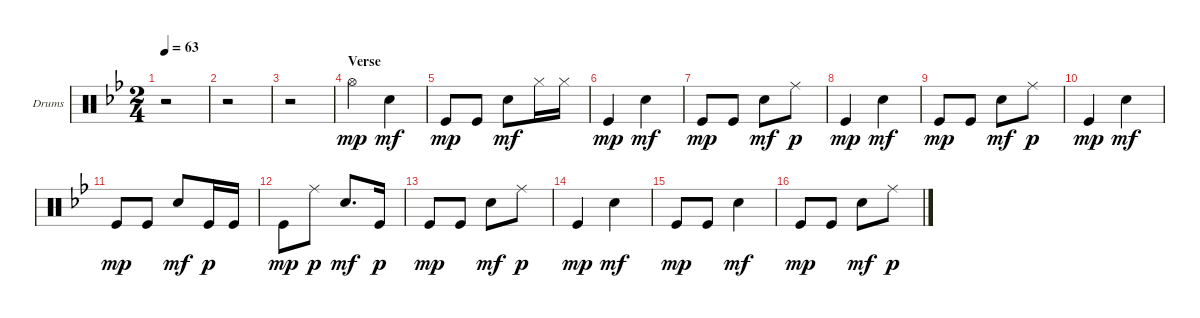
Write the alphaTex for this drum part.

\defaultSystemsLayout 4
\bracketExtendMode groupsimilarinstruments
\firstSystemTrackNameOrientation horizontal
\otherSystemsTrackNameOrientation horizontal
\track ("Drumkit" "Drums") {instrument percussion}
\staff {score}
\articulation defaults
\ts (2 4)
\tempo 63
\clef neutral
\ks bb
r.2{dy mp} |
r.2 |
r.2 |
\section ("" "Verse")
"Hi-Hat (open)".4 "Snare (hit) 2".4{dy mf} |
"Kick (hit)".8{dy mp} "Kick (hit)".8 "Snare (hit) 2".8{dy mf} "Hi-Hat (closed)".16 "Hi-Hat (closed)".16 |
"Kick (hit)".4{dy mp} "Snare (hit) 2".4{dy mf} |
"Kick (hit)".8{dy mp} "Kick (hit)".8 "Snare (hit) 2".8{dy mf} "Ride (middle)".8{dy p} |
"Kick (hit)".4{dy mp} "Snare (hit) 2".4{dy mf} |
"Kick (hit)".8{dy mp} "Kick (hit)".8 "Snare (hit) 2".8{dy mf} "Ride (middle)".8{dy p} |
"Kick (hit)".4{dy mp} "Snare (hit) 2".4{dy mf} |
"Kick (hit)".8{dy mp} "Kick (hit)".8 "Snare (hit) 2".8{dy mf} "Kick (hit)".16{dy p} "Kick (hit)".16 |
"Kick (hit)".8{dy mp} "Ride (middle)".8{dy p} "Snare (hit) 2".8{d dy mf} "Kick (hit)".16{dy p} |
"Kick (hit)".8{dy mp} "Kick (hit)".8 "Snare (hit) 2".8{dy mf} "Ride (middle)".8{dy p} |
"Kick (hit)".4{dy mp} "Snare (hit) 2".4{dy mf} |
"Kick (hit)".8{dy mp} "Kick (hit)".8 "Snare (hit) 2".4{dy mf} |
"Kick (hit)".8{dy mp} "Kick (hit)".8 "Snare (hit) 2".8{dy mf} "Ride (middle)".8{dy p}
